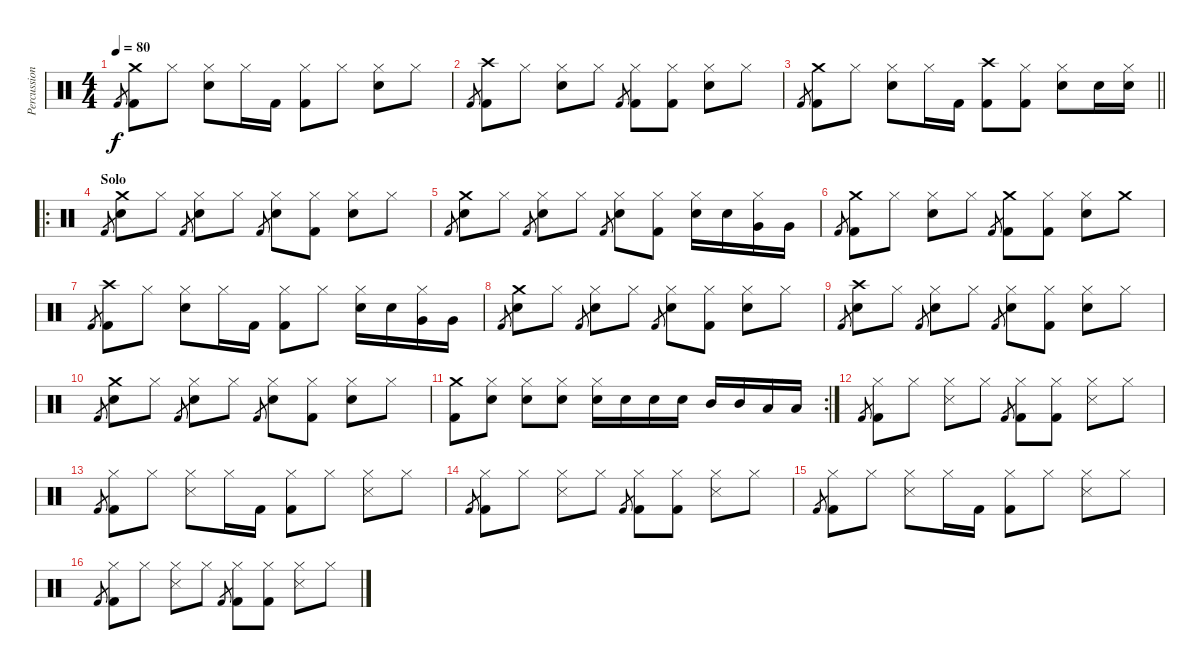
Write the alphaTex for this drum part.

\track ("Percussion" "Percussion") {instrument percussion}
\staff {score}
\articulation defaults
\ts (4 4)
\tempo 80
\clef neutral
\ks c "Kick (hit) 2".8{gr dy f}
("Crash medium (hit)" "Kick (hit) 2").8 "Hi-Hat (closed)".8 ("Hi-Hat (closed)" "Snare (hit) 2").8 "Hi-Hat (closed)".16 "Kick (hit) 2".16 ("Hi-Hat (closed)" "Kick (hit) 2").8 "Hi-Hat (closed)".8 ("Hi-Hat (closed)" "Snare (hit) 2").8 "Hi-Hat (closed)".8 |
"Kick (hit) 2".8{gr} ("Crash high (hit)" "Kick (hit) 2").8 "Hi-Hat (closed)".8 ("Hi-Hat (closed)" "Snare (hit) 2").8 "Hi-Hat (closed)".8 "Kick (hit) 2".8{gr} ("Hi-Hat (closed)" "Kick (hit) 2").8 ("Hi-Hat (closed)" "Kick (hit) 2").8 ("Hi-Hat (closed)" "Snare (hit) 2").8 "Hi-Hat (closed)".8 |
\barLineRight lightlight "Kick (hit) 2".8{gr}
("Crash medium (hit)" "Kick (hit) 2").8 "Hi-Hat (closed)".8 ("Hi-Hat (closed)" "Snare (hit) 2").8 "Hi-Hat (closed)".16 "Kick (hit) 2".16 ("Crash high (hit)" "Kick (hit) 2").8 ("Hi-Hat (closed)" "Kick (hit) 2").8 ("Hi-Hat (closed)" "Snare (hit) 2").8 "Snare (hit) 2".16 ("Hi-Hat (closed)" "Snare (hit) 2").16 |
\ro
\section ("" "Solo")
"Kick (hit) 2".8{gr} ("Crash medium (hit)" "Snare (hit) 2").8 "Hi-Hat (closed)".8 "Kick (hit) 2".8{gr} ("Hi-Hat (closed)" "Snare (hit) 2").8 "Hi-Hat (closed)".8 "Kick (hit) 2".8{gr} ("Hi-Hat (closed)" "Snare (hit) 2").8 ("Hi-Hat (closed)" "Kick (hit) 2").8 ("Hi-Hat (closed)" "Snare (hit) 2").8 "Hi-Hat (closed)".8 |
"Kick (hit) 2".8{gr} ("Crash medium (hit)" "Snare (hit) 2").8 "Hi-Hat (closed)".8 "Kick (hit) 2".8{gr} ("Hi-Hat (closed)" "Snare (hit) 2").8 "Hi-Hat (closed)".8 "Kick (hit) 2".8{gr} ("Hi-Hat (closed)" "Snare (hit) 2").8 ("Hi-Hat (closed)" "Kick (hit) 2").8 ("Hi-Hat (closed)" "Snare (hit) 2").16 "Snare (hit) 2".16 ("Hi-Hat (closed)" "Very Low Tom (hit)").16 "Very Low Tom (hit)".16 |
"Kick (hit) 2".8{gr} ("Crash medium (hit)" "Kick (hit) 2").8 "Hi-Hat (closed)".8 ("Hi-Hat (closed)" "Snare (hit) 2").8 "Hi-Hat (closed)".8 "Kick (hit) 2".8{gr} ("Crash medium (hit)" "Kick (hit) 2").8 ("Hi-Hat (closed)" "Kick (hit) 2").8 ("Hi-Hat (closed)" "Snare (hit) 2").8 "Crash medium (hit)".8 |
"Kick (hit) 2".8{gr} ("Crash high (hit)" "Kick (hit) 2").8 "Hi-Hat (closed)".8 ("Hi-Hat (closed)" "Snare (hit) 2").8 "Hi-Hat (closed)".16 "Kick (hit) 2".16 ("Hi-Hat (closed)" "Kick (hit) 2").8 "Hi-Hat (closed)".8 ("Hi-Hat (closed)" "Snare (hit) 2").16 "Snare (hit) 2".16 ("Hi-Hat (closed)" "Very Low Tom (hit)").16 "Very Low Tom (hit)".16 |
"Kick (hit) 2".8{gr} ("Crash medium (hit)" "Snare (hit) 2").8 "Hi-Hat (closed)".8 "Kick (hit) 2".8{gr} ("Hi-Hat (closed)" "Snare (hit) 2").8 "Hi-Hat (closed)".8 "Kick (hit) 2".8{gr} ("Hi-Hat (closed)" "Snare (hit) 2").8 ("Hi-Hat (closed)" "Kick (hit) 2").8 ("Hi-Hat (closed)" "Snare (hit) 2").8 "Hi-Hat (closed)".8 |
"Kick (hit) 2".8{gr} ("Crash high (hit)" "Snare (hit) 2").8 "Hi-Hat (closed)".8 "Kick (hit) 2".8{gr} ("Hi-Hat (closed)" "Snare (hit) 2").8 "Hi-Hat (closed)".8 "Kick (hit) 2".8{gr} ("Hi-Hat (closed)" "Snare (hit) 2").8 ("Hi-Hat (closed)" "Kick (hit) 2").8 ("Hi-Hat (closed)" "Snare (hit) 2").8 "Hi-Hat (closed)".8 |
"Kick (hit) 2".8{gr} ("Crash medium (hit)" "Snare (hit) 2").8 "Hi-Hat (closed)".8 "Kick (hit) 2".8{gr} ("Hi-Hat (closed)" "Snare (hit) 2").8 "Hi-Hat (closed)".8 "Kick (hit) 2".8{gr} ("Hi-Hat (closed)" "Snare (hit) 2").8 ("Hi-Hat (closed)" "Kick (hit) 2").8 ("Hi-Hat (closed)" "Snare (hit) 2").8 "Hi-Hat (closed)".8 |
\rc 2
("Crash medium (hit)" "Kick (hit) 2").8 ("Hi-Hat (closed)" "Snare (hit) 2").8 ("Hi-Hat (closed)" "Snare (hit) 2").8 ("Hi-Hat (closed)" "Snare (hit) 2").8 ("Hi-Hat (closed)" "Snare (hit) 2").16 "Snare (hit) 2".16 "Snare (hit) 2".16 "Snare (hit) 2".16 "Mid Tom (hit)".16 "Mid Tom (hit)".16 "Low Floor Tom (hit)".16 "Low Floor Tom (hit)".16 |
"Kick (hit) 2".8{gr} ("Hi-Hat (closed)" "Kick (hit) 2").8 "Hi-Hat (closed)".8 ("Hi-Hat (closed)" "Snare (side stick) 3").8 "Hi-Hat (closed)".8 "Kick (hit) 2".8{gr} ("Hi-Hat (closed)" "Kick (hit) 2").8 ("Hi-Hat (closed)" "Kick (hit) 2").8 ("Hi-Hat (closed)" "Snare (side stick) 3").8 "Hi-Hat (closed)".8 |
"Kick (hit) 2".8{gr} ("Hi-Hat (closed)" "Kick (hit) 2").8 "Hi-Hat (closed)".8 ("Hi-Hat (closed)" "Snare (side stick) 3").8 "Hi-Hat (closed)".16 "Kick (hit) 2".16 ("Hi-Hat (closed)" "Kick (hit) 2").8 "Hi-Hat (closed)".8 ("Hi-Hat (closed)" "Snare (side stick) 3").8 "Hi-Hat (closed)".8 |
"Kick (hit) 2".8{gr} ("Hi-Hat (closed)" "Kick (hit) 2").8 "Hi-Hat (closed)".8 ("Hi-Hat (closed)" "Snare (side stick) 3").8 "Hi-Hat (closed)".8 "Kick (hit) 2".8{gr} ("Hi-Hat (closed)" "Kick (hit) 2").8 ("Hi-Hat (closed)" "Kick (hit) 2").8 ("Hi-Hat (closed)" "Snare (side stick) 3").8 "Hi-Hat (closed)".8 |
"Kick (hit) 2".8{gr} ("Hi-Hat (closed)" "Kick (hit) 2").8 "Hi-Hat (closed)".8 ("Hi-Hat (closed)" "Snare (side stick) 3").8 "Hi-Hat (closed)".16 "Kick (hit) 2".16 ("Hi-Hat (closed)" "Kick (hit) 2").8 "Hi-Hat (closed)".8 ("Hi-Hat (closed)" "Snare (side stick) 3").8 "Hi-Hat (closed)".8 |
"Kick (hit) 2".8{gr} ("Hi-Hat (closed)" "Kick (hit) 2").8 "Hi-Hat (closed)".8 ("Hi-Hat (closed)" "Snare (side stick) 3").8 "Hi-Hat (closed)".8 "Kick (hit) 2".8{gr} ("Hi-Hat (closed)" "Kick (hit) 2").8 ("Hi-Hat (closed)" "Kick (hit) 2").8 ("Hi-Hat (closed)" "Snare (side stick) 3").8 "Hi-Hat (closed)".8
